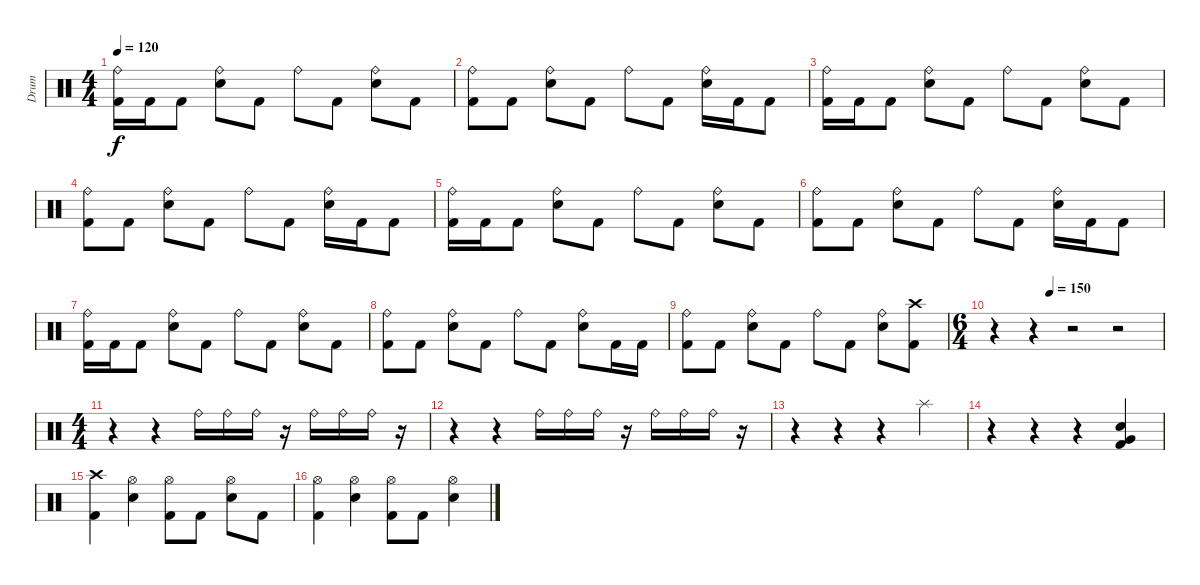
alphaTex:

\track ("Drum" "Drum") {instrument percussion}
\staff {score}
\articulation defaults
\ts (4 4)
\tempo 120
\clef neutral
\ks c
("Ride (bell)" "Kick (hit) 2").16{dy f} "Kick (hit) 2".16 "Kick (hit) 2".8 ("Ride (bell)" "Electric Snare (hit)").8 "Kick (hit) 2".8 "Ride (bell)".8 "Kick (hit) 2".8 ("Ride (bell)" "Electric Snare (hit)").8 "Kick (hit) 2".8 |
("Ride (bell)" "Kick (hit) 2").8 "Kick (hit) 2".8 ("Ride (bell)" "Electric Snare (hit)").8 "Kick (hit) 2".8 "Ride (bell)".8 "Kick (hit) 2".8 ("Ride (bell)" "Electric Snare (hit)").16 "Kick (hit) 2".16 "Kick (hit) 2".8 |
("Ride (bell)" "Kick (hit) 2").16 "Kick (hit) 2".16 "Kick (hit) 2".8 ("Ride (bell)" "Electric Snare (hit)").8 "Kick (hit) 2".8 "Ride (bell)".8 "Kick (hit) 2".8 ("Ride (bell)" "Electric Snare (hit)").8 "Kick (hit) 2".8 |
("Ride (bell)" "Kick (hit) 2").8 "Kick (hit) 2".8 ("Ride (bell)" "Electric Snare (hit)").8 "Kick (hit) 2".8 "Ride (bell)".8 "Kick (hit) 2".8 ("Ride (bell)" "Electric Snare (hit)").16 "Kick (hit) 2".16 "Kick (hit) 2".8 |
("Ride (bell)" "Kick (hit) 2").16 "Kick (hit) 2".16 "Kick (hit) 2".8 ("Ride (bell)" "Electric Snare (hit)").8 "Kick (hit) 2".8 "Ride (bell)".8 "Kick (hit) 2".8 ("Ride (bell)" "Electric Snare (hit)").8 "Kick (hit) 2".8 |
("Ride (bell)" "Kick (hit) 2").8 "Kick (hit) 2".8 ("Ride (bell)" "Electric Snare (hit)").8 "Kick (hit) 2".8 "Ride (bell)".8 "Kick (hit) 2".8 ("Ride (bell)" "Electric Snare (hit)").16 "Kick (hit) 2".16 "Kick (hit) 2".8 |
("Ride (bell)" "Kick (hit) 2").16 "Kick (hit) 2".16 "Kick (hit) 2".8 ("Ride (bell)" "Electric Snare (hit)").8 "Kick (hit) 2".8 "Ride (bell)".8 "Kick (hit) 2".8 ("Ride (bell)" "Electric Snare (hit)").8 "Kick (hit) 2".8 |
("Ride (bell)" "Kick (hit) 2").8 "Kick (hit) 2".8 ("Ride (bell)" "Electric Snare (hit)").8 "Kick (hit) 2".8 "Ride (bell)".8 "Kick (hit) 2".8 ("Ride (bell)" "Electric Snare (hit)").8 "Kick (hit) 2".16 "Kick (hit) 2".16 |
("Ride (bell)" "Kick (hit) 2").8 "Kick (hit) 2".8 ("Ride (bell)" "Electric Snare (hit)").8 "Kick (hit) 2".8 "Ride (bell)".8 "Kick (hit) 2".8 ("Ride (bell)" "Electric Snare (hit)").8 ("Crash high (hit)" "Kick (hit) 2").8 |
\ts (6 4)
\tempo (150 0.3333333333333333)
r.4 r.4 r.2 r.2 |
\ts (4 4)
r.4 r.4{volume 9} "Ride (bell)".16 "Ride (bell)".16 "Ride (bell)".16 r.16 "Ride (bell)".16 "Ride (bell)".16 "Ride (bell)".16 r.16 |
r.4 r.4 "Ride (bell)".16 "Ride (bell)".16 "Ride (bell)".16 r.16 "Ride (bell)".16 "Ride (bell)".16 "Ride (bell)".16 r.16 |
r.4 r.4 r.4 "Splash (hit)".4 |
r.4 r.4{volume 16 balance 8} r.4 ("Electric Snare (hit)" "Very Low Tom (hit)" "Kick (hit) 2").4 |
("Crash high (hit)" "Kick (hit) 2").4 ("Hi-Hat (open)" "Electric Snare (hit)").4 ("Hi-Hat (open)" "Kick (hit) 2").8 "Kick (hit) 2".8 ("Hi-Hat (open)" "Electric Snare (hit)").8 "Kick (hit) 2".8 |
("Hi-Hat (open)" "Kick (hit) 2").4 ("Hi-Hat (open)" "Electric Snare (hit)").4 ("Hi-Hat (open)" "Kick (hit) 2").8 "Kick (hit) 2".8 ("Hi-Hat (open)" "Electric Snare (hit)").4
